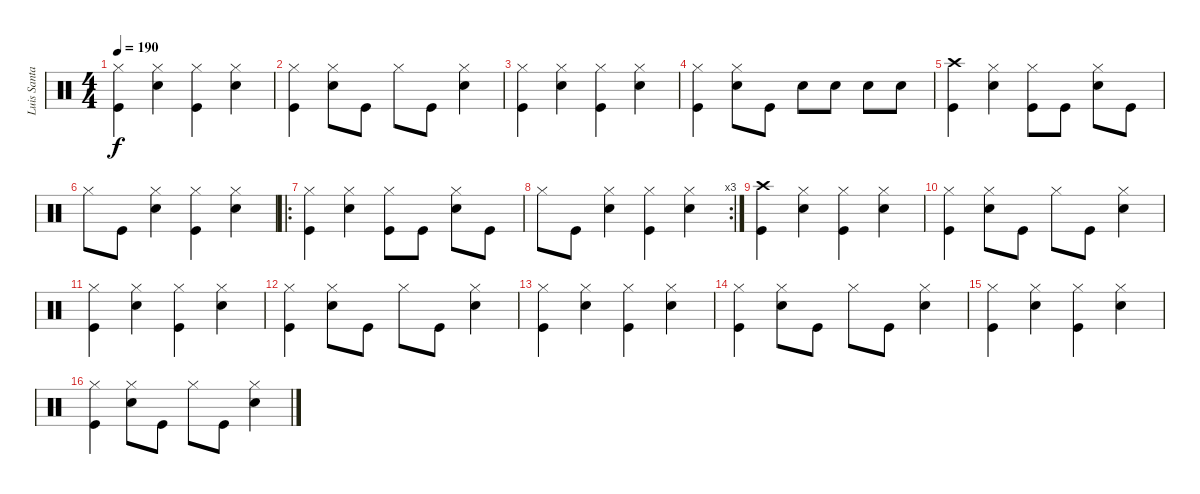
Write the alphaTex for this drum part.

\track ("Luis Santamarina - Batería" "Luis Santa") {instrument percussion}
\staff {score}
\articulation defaults
\ts (4 4)
\tempo 190
\clef neutral
\ks c
("Hi-Hat (closed)" "Kick (hit)").4{dy f} ("Hi-Hat (closed)" "Electric Snare (hit)").4 ("Hi-Hat (closed)" "Kick (hit)").4 ("Hi-Hat (closed)" "Electric Snare (hit)").4 |
("Hi-Hat (closed)" "Kick (hit)").4 ("Hi-Hat (closed)" "Electric Snare (hit)").8 "Kick (hit)".8 "Hi-Hat (closed)".8 "Kick (hit)".8 ("Hi-Hat (closed)" "Electric Snare (hit)").4 |
("Hi-Hat (closed)" "Kick (hit)").4 ("Hi-Hat (closed)" "Electric Snare (hit)").4 ("Hi-Hat (closed)" "Kick (hit)").4 ("Hi-Hat (closed)" "Electric Snare (hit)").4 |
("Hi-Hat (closed)" "Kick (hit)").4 ("Hi-Hat (closed)" "Electric Snare (hit)").8 "Kick (hit)".8 "Electric Snare (hit)".8 "Electric Snare (hit)".8 "Electric Snare (hit)".8 "Electric Snare (hit)".8 |
("Crash high (hit)" "Kick (hit)").4 ("Hi-Hat (closed)" "Electric Snare (hit)").4 ("Hi-Hat (closed)" "Kick (hit)").8 "Kick (hit)".8 ("Hi-Hat (closed)" "Electric Snare (hit)").8 "Kick (hit)".8 |
"Hi-Hat (closed)".8 "Kick (hit)".8 ("Hi-Hat (closed)" "Electric Snare (hit)").4 ("Hi-Hat (closed)" "Kick (hit)").4 ("Hi-Hat (closed)" "Electric Snare (hit)").4 |
\ro
("Hi-Hat (closed)" "Kick (hit)").4 ("Hi-Hat (closed)" "Electric Snare (hit)").4 ("Hi-Hat (closed)" "Kick (hit)").8 "Kick (hit)".8 ("Hi-Hat (closed)" "Electric Snare (hit)").8 "Kick (hit)".8 |
\rc 3 "Hi-Hat (closed)".8 "Kick (hit)".8
("Hi-Hat (closed)" "Electric Snare (hit)").4 ("Hi-Hat (closed)" "Kick (hit)").4 ("Hi-Hat (closed)" "Electric Snare (hit)").4 |
("Crash high (hit)" "Kick (hit)").4 ("Hi-Hat (closed)" "Electric Snare (hit)").4 ("Hi-Hat (closed)" "Kick (hit)").4 ("Hi-Hat (closed)" "Electric Snare (hit)").4 |
("Hi-Hat (closed)" "Kick (hit)").4 ("Hi-Hat (closed)" "Electric Snare (hit)").8 "Kick (hit)".8 "Hi-Hat (closed)".8 "Kick (hit)".8 ("Hi-Hat (closed)" "Electric Snare (hit)").4 |
("Hi-Hat (closed)" "Kick (hit)").4 ("Hi-Hat (closed)" "Electric Snare (hit)").4 ("Hi-Hat (closed)" "Kick (hit)").4 ("Hi-Hat (closed)" "Electric Snare (hit)").4 |
("Hi-Hat (closed)" "Kick (hit)").4 ("Hi-Hat (closed)" "Electric Snare (hit)").8 "Kick (hit)".8 "Hi-Hat (closed)".8 "Kick (hit)".8 ("Hi-Hat (closed)" "Electric Snare (hit)").4 |
("Hi-Hat (closed)" "Kick (hit)").4 ("Hi-Hat (closed)" "Electric Snare (hit)").4 ("Hi-Hat (closed)" "Kick (hit)").4 ("Hi-Hat (closed)" "Electric Snare (hit)").4 |
("Hi-Hat (closed)" "Kick (hit)").4 ("Hi-Hat (closed)" "Electric Snare (hit)").8 "Kick (hit)".8 "Hi-Hat (closed)".8 "Kick (hit)".8 ("Hi-Hat (closed)" "Electric Snare (hit)").4 |
("Hi-Hat (closed)" "Kick (hit)").4 ("Hi-Hat (closed)" "Electric Snare (hit)").4 ("Hi-Hat (closed)" "Kick (hit)").4 ("Hi-Hat (closed)" "Electric Snare (hit)").4 |
("Hi-Hat (closed)" "Kick (hit)").4 ("Hi-Hat (closed)" "Electric Snare (hit)").8 "Kick (hit)".8 "Hi-Hat (closed)".8 "Kick (hit)".8 ("Hi-Hat (closed)" "Electric Snare (hit)").4
